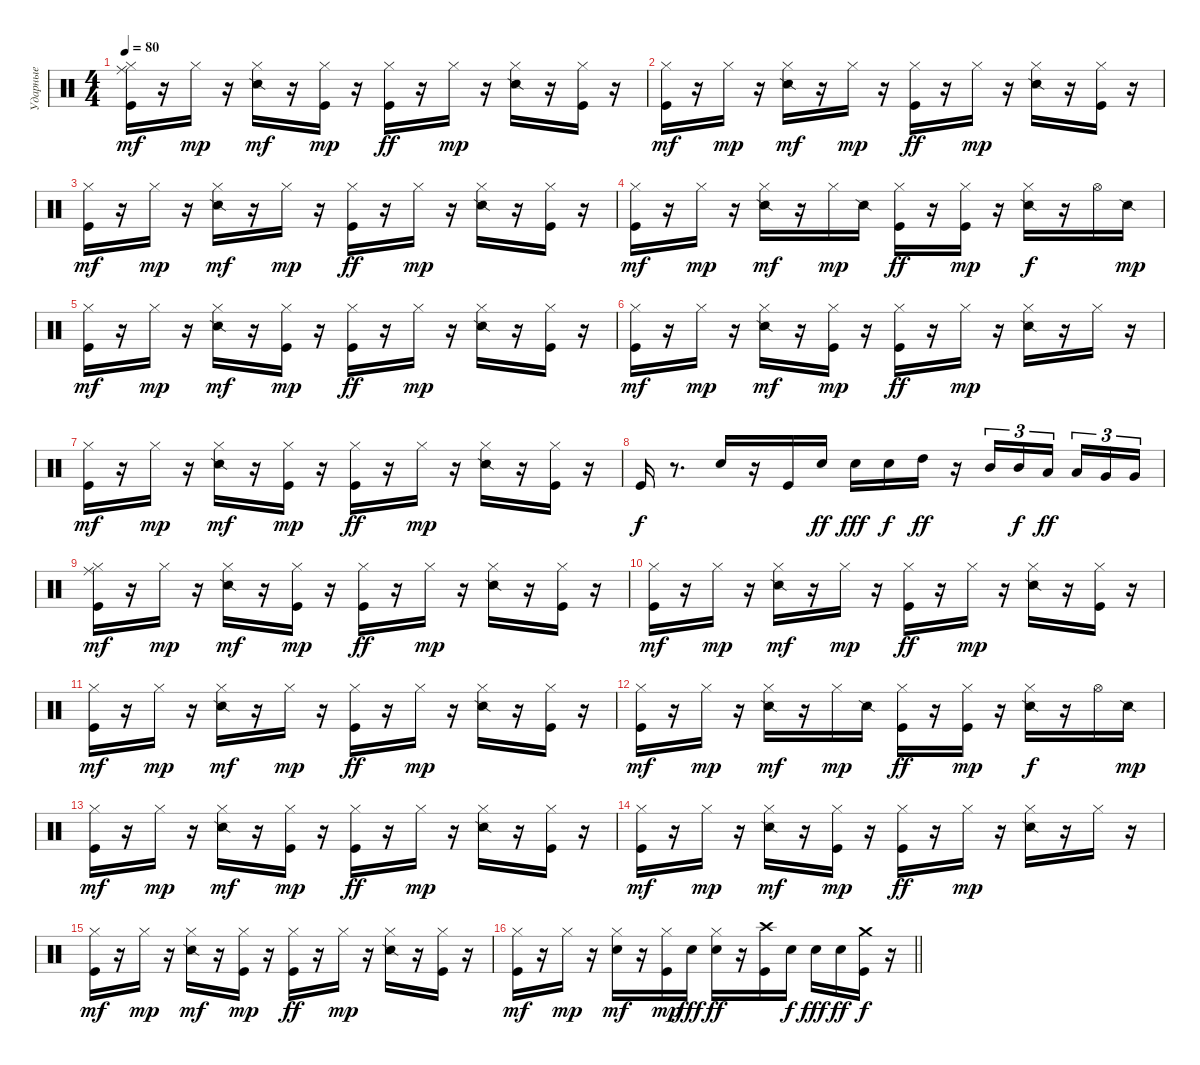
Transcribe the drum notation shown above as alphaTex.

\track ("Ударные" "Ударные") {instrument percussion}
\staff {score}
\articulation defaults
\ts (4 4)
\tempo 80
\clef neutral
\ks c
("Ride (middle)" "Hi-Hat (closed)" "Kick (hit)").16{dy mf} r.16 "Hi-Hat (closed)".16{dy mp} r.16 ("Snare (side stick) 2" "Hi-Hat (closed)").16{dy mf} r.16 ("Kick (hit)" "Hi-Hat (closed)").16{dy mp} r.16 ("Hi-Hat (closed)" "Kick (hit)").16{dy ff} r.16 "Hi-Hat (closed)".16{dy mp} r.16 ("Snare (side stick) 2" "Hi-Hat (closed)").16 r.16 ("Hi-Hat (closed)" "Kick (hit)").16 r.16 |
("Hi-Hat (closed)" "Kick (hit)").16{dy mf} r.16 "Hi-Hat (closed)".16{dy mp} r.16 ("Snare (side stick) 2" "Hi-Hat (closed)").16{dy mf} r.16 "Hi-Hat (closed)".16{dy mp} r.16 ("Hi-Hat (closed)" "Kick (hit)").16{dy ff} r.16 "Hi-Hat (closed)".16{dy mp} r.16 ("Snare (side stick) 2" "Hi-Hat (closed)").16 r.16 ("Hi-Hat (closed)" "Kick (hit)").16 r.16 |
("Hi-Hat (closed)" "Kick (hit)").16{dy mf} r.16 "Hi-Hat (closed)".16{dy mp} r.16 ("Snare (side stick) 2" "Hi-Hat (closed)").16{dy mf} r.16 "Hi-Hat (closed)".16{dy mp} r.16 ("Hi-Hat (closed)" "Kick (hit)").16{dy ff} r.16 "Hi-Hat (closed)".16{dy mp} r.16 ("Snare (side stick) 2" "Hi-Hat (closed)").16 r.16 ("Hi-Hat (closed)" "Kick (hit)").16 r.16 |
("Hi-Hat (closed)" "Kick (hit)").16{dy mf} r.16 "Hi-Hat (closed)".16{dy mp} r.16 ("Snare (side stick) 2" "Hi-Hat (closed)").16{dy mf} r.16 "Hi-Hat (closed)".16{dy mp} "Snare (side stick) 2".16 ("Hi-Hat (closed)" "Kick (hit)").16{dy ff} r.16 ("Hi-Hat (closed)" "Kick (hit)").16{dy mp} r.16 ("Snare (side stick) 2" "Hi-Hat (closed)").16{dy f} r.16 "Hi-Hat (open)".16 "Snare (side stick) 2".16{dy mp} |
("Hi-Hat (closed)" "Kick (hit)").16{dy mf} r.16 "Hi-Hat (closed)".16{dy mp} r.16 ("Snare (side stick) 2" "Hi-Hat (closed)").16{dy mf} r.16 ("Kick (hit)" "Hi-Hat (closed)").16{dy mp} r.16 ("Hi-Hat (closed)" "Kick (hit)").16{dy ff} r.16 "Hi-Hat (closed)".16{dy mp} r.16 ("Snare (side stick) 2" "Hi-Hat (closed)").16 r.16 ("Hi-Hat (closed)" "Kick (hit)").16 r.16 |
("Hi-Hat (closed)" "Kick (hit)").16{dy mf} r.16 "Hi-Hat (closed)".16{dy mp} r.16 ("Snare (side stick) 2" "Hi-Hat (closed)").16{dy mf} r.16 ("Kick (hit)" "Hi-Hat (closed)").16{dy mp} r.16 ("Hi-Hat (closed)" "Kick (hit)").16{dy ff} r.16 "Hi-Hat (closed)".16{dy mp} r.16 ("Snare (side stick) 2" "Hi-Hat (closed)").16 r.16 "Hi-Hat (closed)".16 r.16 |
("Hi-Hat (closed)" "Kick (hit)").16{dy mf} r.16 "Hi-Hat (closed)".16{dy mp} r.16 ("Snare (side stick) 2" "Hi-Hat (closed)").16{dy mf} r.16 ("Kick (hit)" "Hi-Hat (closed)").16{dy mp} r.16 ("Hi-Hat (closed)" "Kick (hit)").16{dy ff} r.16 "Hi-Hat (closed)".16{dy mp} r.16 ("Snare (side stick) 2" "Hi-Hat (closed)").16 r.16 ("Hi-Hat (closed)" "Kick (hit)").16 r.16 |
"Kick (hit)".16{dy f} r.8{d} "Electric Snare (hit)".16 r.16 "Kick (hit)".16 "Electric Snare (hit)".16{dy ff} "Electric Snare (hit)".16{dy fff} "Electric Snare (hit)".16{dy f} "High Tom (hit)".16{dy ff} r.16 "Mid Tom (hit)".16{tu (3 2)} "Mid Tom (hit)".16{tu (3 2) dy f} "Low Tom (hit)".16{tu (3 2) dy ff beam splitsecondary} "Low Tom (hit)".16{tu (3 2)} "Very Low Tom (hit)".16{tu (3 2)} "Very Low Tom (hit)".16{tu (3 2)} |
("Ride (middle)" "Hi-Hat (closed)" "Kick (hit)").16{dy mf} r.16 "Hi-Hat (closed)".16{dy mp} r.16 ("Snare (side stick) 2" "Hi-Hat (closed)").16{dy mf} r.16 ("Kick (hit)" "Hi-Hat (closed)").16{dy mp} r.16 ("Hi-Hat (closed)" "Kick (hit)").16{dy ff} r.16 "Hi-Hat (closed)".16{dy mp} r.16 ("Snare (side stick) 2" "Hi-Hat (closed)").16 r.16 ("Hi-Hat (closed)" "Kick (hit)").16 r.16 |
("Hi-Hat (closed)" "Kick (hit)").16{dy mf} r.16 "Hi-Hat (closed)".16{dy mp} r.16 ("Snare (side stick) 2" "Hi-Hat (closed)").16{dy mf} r.16 "Hi-Hat (closed)".16{dy mp} r.16 ("Hi-Hat (closed)" "Kick (hit)").16{dy ff} r.16 "Hi-Hat (closed)".16{dy mp} r.16 ("Snare (side stick) 2" "Hi-Hat (closed)").16 r.16 ("Hi-Hat (closed)" "Kick (hit)").16 r.16 |
("Hi-Hat (closed)" "Kick (hit)").16{dy mf} r.16 "Hi-Hat (closed)".16{dy mp} r.16 ("Snare (side stick) 2" "Hi-Hat (closed)").16{dy mf} r.16 "Hi-Hat (closed)".16{dy mp} r.16 ("Hi-Hat (closed)" "Kick (hit)").16{dy ff} r.16 "Hi-Hat (closed)".16{dy mp} r.16 ("Snare (side stick) 2" "Hi-Hat (closed)").16 r.16 ("Hi-Hat (closed)" "Kick (hit)").16 r.16 |
("Hi-Hat (closed)" "Kick (hit)").16{dy mf} r.16 "Hi-Hat (closed)".16{dy mp} r.16 ("Snare (side stick) 2" "Hi-Hat (closed)").16{dy mf} r.16 "Hi-Hat (closed)".16{dy mp} "Snare (side stick) 2".16 ("Hi-Hat (closed)" "Kick (hit)").16{dy ff} r.16 ("Hi-Hat (closed)" "Kick (hit)").16{dy mp} r.16 ("Snare (side stick) 2" "Hi-Hat (closed)").16{dy f} r.16 "Hi-Hat (open)".16 "Snare (side stick) 2".16{dy mp} |
("Hi-Hat (closed)" "Kick (hit)").16{dy mf} r.16 "Hi-Hat (closed)".16{dy mp} r.16 ("Snare (side stick) 2" "Hi-Hat (closed)").16{dy mf} r.16 ("Kick (hit)" "Hi-Hat (closed)").16{dy mp} r.16 ("Hi-Hat (closed)" "Kick (hit)").16{dy ff} r.16 "Hi-Hat (closed)".16{dy mp} r.16 ("Snare (side stick) 2" "Hi-Hat (closed)").16 r.16 ("Hi-Hat (closed)" "Kick (hit)").16 r.16 |
("Hi-Hat (closed)" "Kick (hit)").16{dy mf} r.16 "Hi-Hat (closed)".16{dy mp} r.16 ("Snare (side stick) 2" "Hi-Hat (closed)").16{dy mf} r.16 ("Kick (hit)" "Hi-Hat (closed)").16{dy mp} r.16 ("Hi-Hat (closed)" "Kick (hit)").16{dy ff} r.16 "Hi-Hat (closed)".16{dy mp} r.16 ("Snare (side stick) 2" "Hi-Hat (closed)").16 r.16 "Hi-Hat (closed)".16 r.16 |
("Hi-Hat (closed)" "Kick (hit)").16{dy mf} r.16 "Hi-Hat (closed)".16{dy mp} r.16 ("Snare (side stick) 2" "Hi-Hat (closed)").16{dy mf} r.16 ("Kick (hit)" "Hi-Hat (closed)").16{dy mp} r.16 ("Hi-Hat (closed)" "Kick (hit)").16{dy ff} r.16 "Hi-Hat (closed)".16{dy mp} r.16 ("Snare (side stick) 2" "Hi-Hat (closed)").16 r.16 ("Hi-Hat (closed)" "Kick (hit)").16 r.16 |
\barLineRight lightlight
("Hi-Hat (closed)" "Kick (hit)").16{dy mf} r.16 "Hi-Hat (closed)".16{dy mp} r.16 ("Electric Snare (hit)" "Hi-Hat (closed)").16{dy mf} r.16 ("Kick (hit)" "Hi-Hat (closed)").16{dy mp} "Electric Snare (hit)".16{dy fff} ("Hi-Hat (closed)" "Electric Snare (hit)").16{dy ff} r.16 ("Crash high (hit)" "Kick (hit)").16 "Electric Snare (hit)".16{dy f} "Electric Snare (hit)".16{dy fff} "Electric Snare (hit)".16{dy ff} ("Crash medium (hit)" "Kick (hit)").16{dy f} r.16
